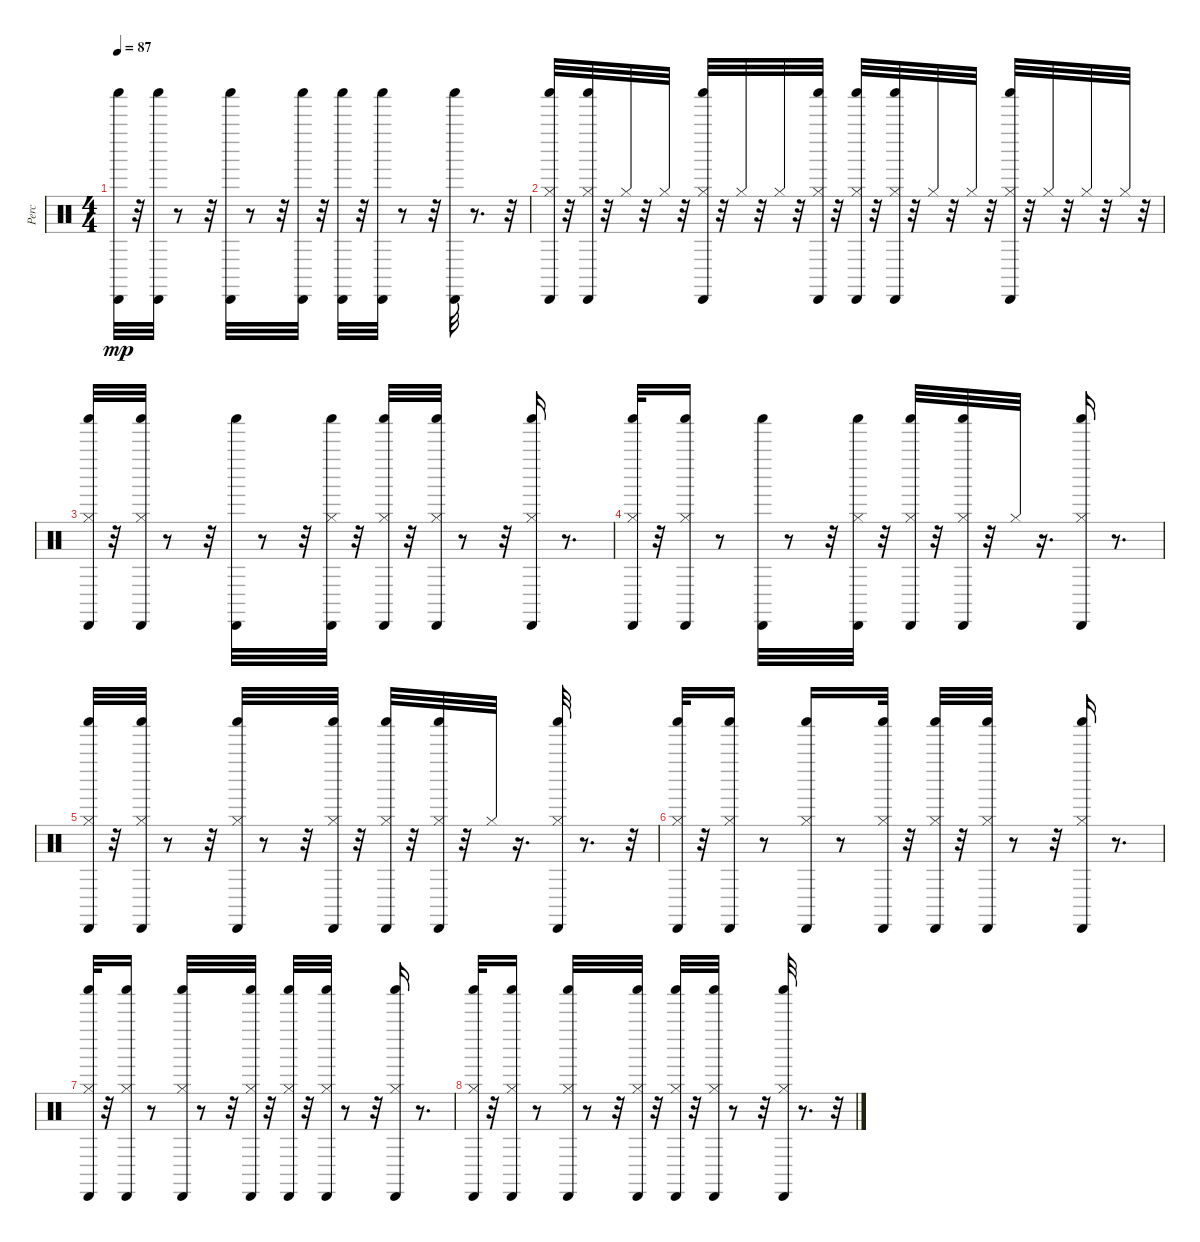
\track ("Perc" "Perc") {instrument percussion}
\staff {score}
\articulation defaults
\ts (4 4)
\tempo 87
\clef neutral
\ks c
("Cabasa (hit)" "Shaker (hit)").32{dy mp} r.32 ("Shaker (hit)" "Cabasa (hit)").32 r.8 r.32 ("Cabasa (hit)" "Shaker (hit)").32 r.8 r.32 ("Cabasa (hit)" "Shaker (hit)").32 r.32 ("Shaker (hit)" "Cabasa (hit)").32 r.32 ("Shaker (hit)" "Cabasa (hit)").32 r.8 r.32 ("Shaker (hit)" "Cabasa (hit)").32 r.8{d} r.32 |
("Cabasa (hit)" "Shaker (hit)" "Hi-Hat (closed)").32 r.32 ("Shaker (hit)" "Cabasa (hit)" "Hi-Hat (closed)").32 r.32 "Hi-Hat (closed)".32 r.32 "Hi-Hat (closed)".32 r.32 ("Shaker (hit)" "Cabasa (hit)" "Hi-Hat (closed)").32 r.32 "Hi-Hat (closed)".32 r.32 "Hi-Hat (closed)".32 r.32 ("Shaker (hit)" "Cabasa (hit)" "Hi-Hat (closed)").32 r.32 ("Shaker (hit)" "Cabasa (hit)" "Hi-Hat (closed)").32 r.32 ("Shaker (hit)" "Cabasa (hit)" "Hi-Hat (closed)").32 r.32 "Hi-Hat (closed)".32 r.32 "Hi-Hat (closed)".32 r.32 ("Shaker (hit)" "Cabasa (hit)" "Hi-Hat (closed)").32 r.32 "Hi-Hat (closed)".32 r.32 "Hi-Hat (closed)".32 r.32 "Hi-Hat (closed)".32 r.32 |
("Cabasa (hit)" "Shaker (hit)" "Hi-Hat (closed)").32 r.32 ("Shaker (hit)" "Cabasa (hit)" "Hi-Hat (closed)").32 r.8 r.32 ("Cabasa (hit)" "Shaker (hit)").32 r.8 r.32 ("Cabasa (hit)" "Shaker (hit)" "Hi-Hat (closed)").32 r.32 ("Shaker (hit)" "Cabasa (hit)" "Hi-Hat (closed)").32 r.32 ("Shaker (hit)" "Cabasa (hit)" "Hi-Hat (closed)").32 r.8 r.32 ("Shaker (hit)" "Cabasa (hit)" "Hi-Hat (closed)").16 r.8{d} |
("Cabasa (hit)" "Shaker (hit)" "Hi-Hat (closed)").32 r.32 ("Shaker (hit)" "Cabasa (hit)" "Hi-Hat (closed)").16 r.8 ("Shaker (hit)" "Cabasa (hit)").32 r.8 r.32 ("Shaker (hit)" "Cabasa (hit)" "Hi-Hat (closed)").32 r.32 ("Shaker (hit)" "Cabasa (hit)" "Hi-Hat (closed)").32 r.32 ("Shaker (hit)" "Cabasa (hit)" "Hi-Hat (closed)").32 r.32 "Hi-Hat (closed)".32 r.16{d} ("Shaker (hit)" "Cabasa (hit)" "Hi-Hat (closed)").16 r.8{d} |
("Cabasa (hit)" "Shaker (hit)" "Hi-Hat (closed)").32 r.32 ("Shaker (hit)" "Cabasa (hit)" "Hi-Hat (closed)").32 r.8 r.32 ("Cabasa (hit)" "Shaker (hit)" "Hi-Hat (closed)").32 r.8 r.32 ("Cabasa (hit)" "Shaker (hit)" "Hi-Hat (closed)").32 r.32 ("Shaker (hit)" "Cabasa (hit)" "Hi-Hat (closed)").32 r.32 ("Shaker (hit)" "Cabasa (hit)" "Hi-Hat (closed)").32 r.32 "Hi-Hat (closed)".32 r.16{d} ("Shaker (hit)" "Cabasa (hit)" "Hi-Hat (closed)").32 r.8{d} r.32 |
("Cabasa (hit)" "Shaker (hit)" "Hi-Hat (closed)").32 r.32 ("Shaker (hit)" "Cabasa (hit)" "Hi-Hat (closed)").16 r.8 ("Shaker (hit)" "Cabasa (hit)" "Hi-Hat (closed)").16 r.8 ("Shaker (hit)" "Cabasa (hit)" "Hi-Hat (closed)").32 r.32 ("Shaker (hit)" "Cabasa (hit)" "Hi-Hat (closed)").32 r.32 ("Shaker (hit)" "Cabasa (hit)" "Hi-Hat (closed)").32 r.8 r.32 ("Shaker (hit)" "Cabasa (hit)" "Hi-Hat (closed)").16 r.8{d} |
("Cabasa (hit)" "Shaker (hit)" "Hi-Hat (closed)").32 r.32 ("Shaker (hit)" "Cabasa (hit)" "Hi-Hat (closed)").16 r.8 ("Cabasa (hit)" "Shaker (hit)" "Hi-Hat (closed)").32 r.8 r.32 ("Cabasa (hit)" "Shaker (hit)" "Hi-Hat (closed)").32 r.32 ("Shaker (hit)" "Cabasa (hit)" "Hi-Hat (closed)").32 r.32 ("Shaker (hit)" "Cabasa (hit)" "Hi-Hat (closed)").32 r.8 r.32 ("Shaker (hit)" "Cabasa (hit)" "Hi-Hat (closed)").16 r.8{d} |
("Cabasa (hit)" "Shaker (hit)" "Hi-Hat (closed)").32 r.32 ("Shaker (hit)" "Cabasa (hit)" "Hi-Hat (closed)").16 r.8 ("Shaker (hit)" "Cabasa (hit)" "Hi-Hat (closed)").32 r.8 r.32 ("Shaker (hit)" "Cabasa (hit)" "Hi-Hat (closed)").32 r.32 ("Shaker (hit)" "Cabasa (hit)" "Hi-Hat (closed)").32 r.32 ("Shaker (hit)" "Cabasa (hit)" "Hi-Hat (closed)").32 r.8 r.32 ("Shaker (hit)" "Cabasa (hit)" "Hi-Hat (closed)").32 r.8{d} r.32
